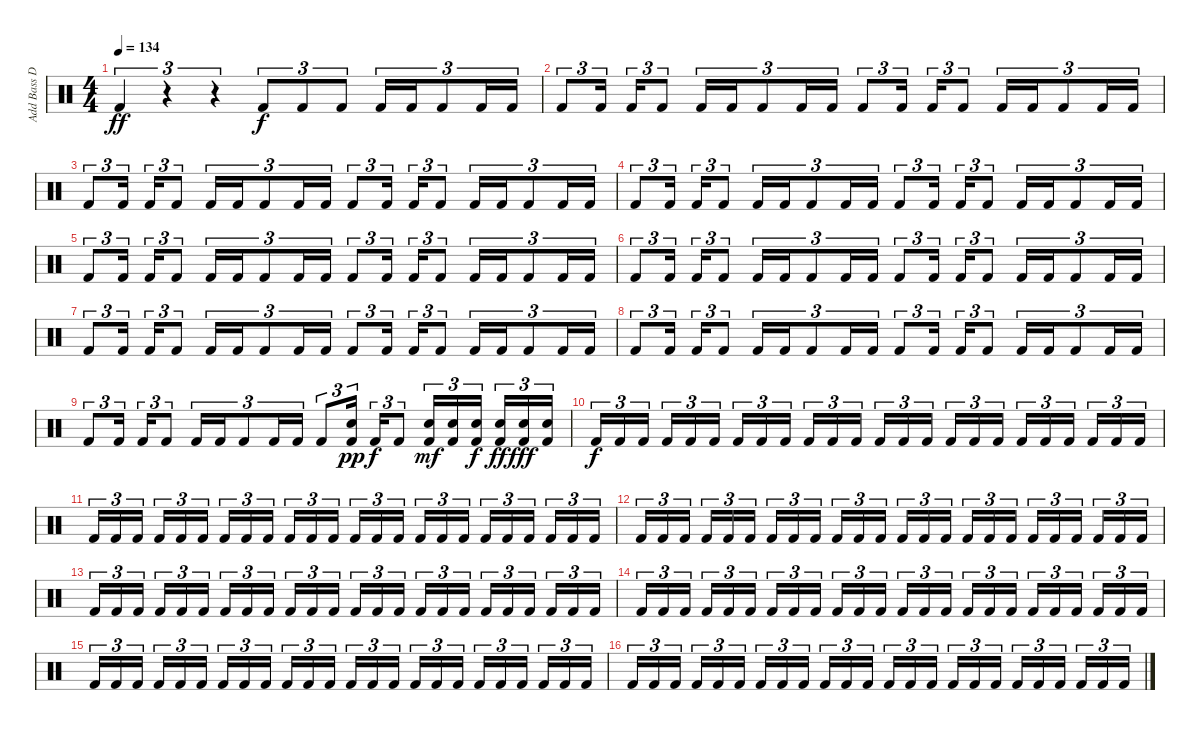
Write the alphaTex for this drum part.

\track ("Add Bass Drum" "Add Bass D") {instrument percussion}
\staff {score}
\articulation defaults
\ts (4 4)
\tempo 134
\clef neutral
\ks c "Kick (hit) 2".4{tu (3 2) dy ff}
r.4{tu (3 2)} r.4{tu (3 2)} "Kick (hit) 2".8{tu (3 2) dy f} "Kick (hit) 2".8{tu (3 2)} "Kick (hit) 2".8{tu (3 2)} "Kick (hit) 2".16{tu (3 2)} "Kick (hit) 2".16{tu (3 2)} "Kick (hit) 2".8{tu (3 2)} "Kick (hit) 2".16{tu (3 2)} "Kick (hit) 2".16{tu (3 2)} |
"Kick (hit) 2".8{tu (3 2)} "Kick (hit) 2".16{tu (3 2)} "Kick (hit) 2".16{tu (3 2)} "Kick (hit) 2".8{tu (3 2)} "Kick (hit) 2".16{tu (3 2)} "Kick (hit) 2".16{tu (3 2)} "Kick (hit) 2".8{tu (3 2)} "Kick (hit) 2".16{tu (3 2)} "Kick (hit) 2".16{tu (3 2)} "Kick (hit) 2".8{tu (3 2)} "Kick (hit) 2".16{tu (3 2)} "Kick (hit) 2".16{tu (3 2)} "Kick (hit) 2".8{tu (3 2)} "Kick (hit) 2".16{tu (3 2)} "Kick (hit) 2".16{tu (3 2)} "Kick (hit) 2".8{tu (3 2)} "Kick (hit) 2".16{tu (3 2)} "Kick (hit) 2".16{tu (3 2)} |
"Kick (hit) 2".8{tu (3 2)} "Kick (hit) 2".16{tu (3 2)} "Kick (hit) 2".16{tu (3 2)} "Kick (hit) 2".8{tu (3 2)} "Kick (hit) 2".16{tu (3 2)} "Kick (hit) 2".16{tu (3 2)} "Kick (hit) 2".8{tu (3 2)} "Kick (hit) 2".16{tu (3 2)} "Kick (hit) 2".16{tu (3 2)} "Kick (hit) 2".8{tu (3 2)} "Kick (hit) 2".16{tu (3 2)} "Kick (hit) 2".16{tu (3 2)} "Kick (hit) 2".8{tu (3 2)} "Kick (hit) 2".16{tu (3 2)} "Kick (hit) 2".16{tu (3 2)} "Kick (hit) 2".8{tu (3 2)} "Kick (hit) 2".16{tu (3 2)} "Kick (hit) 2".16{tu (3 2)} |
"Kick (hit) 2".8{tu (3 2)} "Kick (hit) 2".16{tu (3 2)} "Kick (hit) 2".16{tu (3 2)} "Kick (hit) 2".8{tu (3 2)} "Kick (hit) 2".16{tu (3 2)} "Kick (hit) 2".16{tu (3 2)} "Kick (hit) 2".8{tu (3 2)} "Kick (hit) 2".16{tu (3 2)} "Kick (hit) 2".16{tu (3 2)} "Kick (hit) 2".8{tu (3 2)} "Kick (hit) 2".16{tu (3 2)} "Kick (hit) 2".16{tu (3 2)} "Kick (hit) 2".8{tu (3 2)} "Kick (hit) 2".16{tu (3 2)} "Kick (hit) 2".16{tu (3 2)} "Kick (hit) 2".8{tu (3 2)} "Kick (hit) 2".16{tu (3 2)} "Kick (hit) 2".16{tu (3 2)} |
"Kick (hit) 2".8{tu (3 2)} "Kick (hit) 2".16{tu (3 2)} "Kick (hit) 2".16{tu (3 2)} "Kick (hit) 2".8{tu (3 2)} "Kick (hit) 2".16{tu (3 2)} "Kick (hit) 2".16{tu (3 2)} "Kick (hit) 2".8{tu (3 2)} "Kick (hit) 2".16{tu (3 2)} "Kick (hit) 2".16{tu (3 2)} "Kick (hit) 2".8{tu (3 2)} "Kick (hit) 2".16{tu (3 2)} "Kick (hit) 2".16{tu (3 2)} "Kick (hit) 2".8{tu (3 2)} "Kick (hit) 2".16{tu (3 2)} "Kick (hit) 2".16{tu (3 2)} "Kick (hit) 2".8{tu (3 2)} "Kick (hit) 2".16{tu (3 2)} "Kick (hit) 2".16{tu (3 2)} |
"Kick (hit) 2".8{tu (3 2)} "Kick (hit) 2".16{tu (3 2)} "Kick (hit) 2".16{tu (3 2)} "Kick (hit) 2".8{tu (3 2)} "Kick (hit) 2".16{tu (3 2)} "Kick (hit) 2".16{tu (3 2)} "Kick (hit) 2".8{tu (3 2)} "Kick (hit) 2".16{tu (3 2)} "Kick (hit) 2".16{tu (3 2)} "Kick (hit) 2".8{tu (3 2)} "Kick (hit) 2".16{tu (3 2)} "Kick (hit) 2".16{tu (3 2)} "Kick (hit) 2".8{tu (3 2)} "Kick (hit) 2".16{tu (3 2)} "Kick (hit) 2".16{tu (3 2)} "Kick (hit) 2".8{tu (3 2)} "Kick (hit) 2".16{tu (3 2)} "Kick (hit) 2".16{tu (3 2)} |
"Kick (hit) 2".8{tu (3 2)} "Kick (hit) 2".16{tu (3 2)} "Kick (hit) 2".16{tu (3 2)} "Kick (hit) 2".8{tu (3 2)} "Kick (hit) 2".16{tu (3 2)} "Kick (hit) 2".16{tu (3 2)} "Kick (hit) 2".8{tu (3 2)} "Kick (hit) 2".16{tu (3 2)} "Kick (hit) 2".16{tu (3 2)} "Kick (hit) 2".8{tu (3 2)} "Kick (hit) 2".16{tu (3 2)} "Kick (hit) 2".16{tu (3 2)} "Kick (hit) 2".8{tu (3 2)} "Kick (hit) 2".16{tu (3 2)} "Kick (hit) 2".16{tu (3 2)} "Kick (hit) 2".8{tu (3 2)} "Kick (hit) 2".16{tu (3 2)} "Kick (hit) 2".16{tu (3 2)} |
"Kick (hit) 2".8{tu (3 2)} "Kick (hit) 2".16{tu (3 2)} "Kick (hit) 2".16{tu (3 2)} "Kick (hit) 2".8{tu (3 2)} "Kick (hit) 2".16{tu (3 2)} "Kick (hit) 2".16{tu (3 2)} "Kick (hit) 2".8{tu (3 2)} "Kick (hit) 2".16{tu (3 2)} "Kick (hit) 2".16{tu (3 2)} "Kick (hit) 2".8{tu (3 2)} "Kick (hit) 2".16{tu (3 2)} "Kick (hit) 2".16{tu (3 2)} "Kick (hit) 2".8{tu (3 2)} "Kick (hit) 2".16{tu (3 2)} "Kick (hit) 2".16{tu (3 2)} "Kick (hit) 2".8{tu (3 2)} "Kick (hit) 2".16{tu (3 2)} "Kick (hit) 2".16{tu (3 2)} |
"Kick (hit) 2".8{tu (3 2)} "Kick (hit) 2".16{tu (3 2)} "Kick (hit) 2".16{tu (3 2)} "Kick (hit) 2".8{tu (3 2)} "Kick (hit) 2".16{tu (3 2)} "Kick (hit) 2".16{tu (3 2)} "Kick (hit) 2".8{tu (3 2)} "Kick (hit) 2".16{tu (3 2)} "Kick (hit) 2".16{tu (3 2)} "Kick (hit) 2".8{tu (3 2)} ("Electric Snare (hit)" "Kick (hit) 2").16{tu (3 2) dy pp} "Kick (hit) 2".16{tu (3 2) dy f} "Kick (hit) 2".8{tu (3 2)} ("Electric Snare (hit)" "Kick (hit) 2").16{tu (3 2) dy mf} ("Electric Snare (hit)" "Kick (hit) 2").16{tu (3 2)} ("Electric Snare (hit)" "Kick (hit) 2").16{tu (3 2) dy f} ("Electric Snare (hit)" "Kick (hit) 2").16{tu (3 2) dy ff} ("Electric Snare (hit)" "Kick (hit) 2").16{tu (3 2) dy fff} ("Electric Snare (hit)" "Kick (hit) 2").16{tu (3 2)} |
"Kick (hit) 2".16{tu (3 2) dy f} "Kick (hit) 2".16{tu (3 2)} "Kick (hit) 2".16{tu (3 2)} "Kick (hit) 2".16{tu (3 2)} "Kick (hit) 2".16{tu (3 2)} "Kick (hit) 2".16{tu (3 2)} "Kick (hit) 2".16{tu (3 2)} "Kick (hit) 2".16{tu (3 2)} "Kick (hit) 2".16{tu (3 2)} "Kick (hit) 2".16{tu (3 2)} "Kick (hit) 2".16{tu (3 2)} "Kick (hit) 2".16{tu (3 2)} "Kick (hit) 2".16{tu (3 2)} "Kick (hit) 2".16{tu (3 2)} "Kick (hit) 2".16{tu (3 2)} "Kick (hit) 2".16{tu (3 2)} "Kick (hit) 2".16{tu (3 2)} "Kick (hit) 2".16{tu (3 2)} "Kick (hit) 2".16{tu (3 2)} "Kick (hit) 2".16{tu (3 2)} "Kick (hit) 2".16{tu (3 2)} "Kick (hit) 2".16{tu (3 2)} "Kick (hit) 2".16{tu (3 2)} "Kick (hit) 2".16{tu (3 2)} |
"Kick (hit) 2".16{tu (3 2)} "Kick (hit) 2".16{tu (3 2)} "Kick (hit) 2".16{tu (3 2)} "Kick (hit) 2".16{tu (3 2)} "Kick (hit) 2".16{tu (3 2)} "Kick (hit) 2".16{tu (3 2)} "Kick (hit) 2".16{tu (3 2)} "Kick (hit) 2".16{tu (3 2)} "Kick (hit) 2".16{tu (3 2)} "Kick (hit) 2".16{tu (3 2)} "Kick (hit) 2".16{tu (3 2)} "Kick (hit) 2".16{tu (3 2)} "Kick (hit) 2".16{tu (3 2)} "Kick (hit) 2".16{tu (3 2)} "Kick (hit) 2".16{tu (3 2)} "Kick (hit) 2".16{tu (3 2)} "Kick (hit) 2".16{tu (3 2)} "Kick (hit) 2".16{tu (3 2)} "Kick (hit) 2".16{tu (3 2)} "Kick (hit) 2".16{tu (3 2)} "Kick (hit) 2".16{tu (3 2)} "Kick (hit) 2".16{tu (3 2)} "Kick (hit) 2".16{tu (3 2)} "Kick (hit) 2".16{tu (3 2)} |
"Kick (hit) 2".16{tu (3 2)} "Kick (hit) 2".16{tu (3 2)} "Kick (hit) 2".16{tu (3 2)} "Kick (hit) 2".16{tu (3 2)} "Kick (hit) 2".16{tu (3 2)} "Kick (hit) 2".16{tu (3 2)} "Kick (hit) 2".16{tu (3 2)} "Kick (hit) 2".16{tu (3 2)} "Kick (hit) 2".16{tu (3 2)} "Kick (hit) 2".16{tu (3 2)} "Kick (hit) 2".16{tu (3 2)} "Kick (hit) 2".16{tu (3 2)} "Kick (hit) 2".16{tu (3 2)} "Kick (hit) 2".16{tu (3 2)} "Kick (hit) 2".16{tu (3 2)} "Kick (hit) 2".16{tu (3 2)} "Kick (hit) 2".16{tu (3 2)} "Kick (hit) 2".16{tu (3 2)} "Kick (hit) 2".16{tu (3 2)} "Kick (hit) 2".16{tu (3 2)} "Kick (hit) 2".16{tu (3 2)} "Kick (hit) 2".16{tu (3 2)} "Kick (hit) 2".16{tu (3 2)} "Kick (hit) 2".16{tu (3 2)} |
"Kick (hit) 2".16{tu (3 2)} "Kick (hit) 2".16{tu (3 2)} "Kick (hit) 2".16{tu (3 2)} "Kick (hit) 2".16{tu (3 2)} "Kick (hit) 2".16{tu (3 2)} "Kick (hit) 2".16{tu (3 2)} "Kick (hit) 2".16{tu (3 2)} "Kick (hit) 2".16{tu (3 2)} "Kick (hit) 2".16{tu (3 2)} "Kick (hit) 2".16{tu (3 2)} "Kick (hit) 2".16{tu (3 2)} "Kick (hit) 2".16{tu (3 2)} "Kick (hit) 2".16{tu (3 2)} "Kick (hit) 2".16{tu (3 2)} "Kick (hit) 2".16{tu (3 2)} "Kick (hit) 2".16{tu (3 2)} "Kick (hit) 2".16{tu (3 2)} "Kick (hit) 2".16{tu (3 2)} "Kick (hit) 2".16{tu (3 2)} "Kick (hit) 2".16{tu (3 2)} "Kick (hit) 2".16{tu (3 2)} "Kick (hit) 2".16{tu (3 2)} "Kick (hit) 2".16{tu (3 2)} "Kick (hit) 2".16{tu (3 2)} |
"Kick (hit) 2".16{tu (3 2)} "Kick (hit) 2".16{tu (3 2)} "Kick (hit) 2".16{tu (3 2)} "Kick (hit) 2".16{tu (3 2)} "Kick (hit) 2".16{tu (3 2)} "Kick (hit) 2".16{tu (3 2)} "Kick (hit) 2".16{tu (3 2)} "Kick (hit) 2".16{tu (3 2)} "Kick (hit) 2".16{tu (3 2)} "Kick (hit) 2".16{tu (3 2)} "Kick (hit) 2".16{tu (3 2)} "Kick (hit) 2".16{tu (3 2)} "Kick (hit) 2".16{tu (3 2)} "Kick (hit) 2".16{tu (3 2)} "Kick (hit) 2".16{tu (3 2)} "Kick (hit) 2".16{tu (3 2)} "Kick (hit) 2".16{tu (3 2)} "Kick (hit) 2".16{tu (3 2)} "Kick (hit) 2".16{tu (3 2)} "Kick (hit) 2".16{tu (3 2)} "Kick (hit) 2".16{tu (3 2)} "Kick (hit) 2".16{tu (3 2)} "Kick (hit) 2".16{tu (3 2)} "Kick (hit) 2".16{tu (3 2)} |
"Kick (hit) 2".16{tu (3 2)} "Kick (hit) 2".16{tu (3 2)} "Kick (hit) 2".16{tu (3 2)} "Kick (hit) 2".16{tu (3 2)} "Kick (hit) 2".16{tu (3 2)} "Kick (hit) 2".16{tu (3 2)} "Kick (hit) 2".16{tu (3 2)} "Kick (hit) 2".16{tu (3 2)} "Kick (hit) 2".16{tu (3 2)} "Kick (hit) 2".16{tu (3 2)} "Kick (hit) 2".16{tu (3 2)} "Kick (hit) 2".16{tu (3 2)} "Kick (hit) 2".16{tu (3 2)} "Kick (hit) 2".16{tu (3 2)} "Kick (hit) 2".16{tu (3 2)} "Kick (hit) 2".16{tu (3 2)} "Kick (hit) 2".16{tu (3 2)} "Kick (hit) 2".16{tu (3 2)} "Kick (hit) 2".16{tu (3 2)} "Kick (hit) 2".16{tu (3 2)} "Kick (hit) 2".16{tu (3 2)} "Kick (hit) 2".16{tu (3 2)} "Kick (hit) 2".16{tu (3 2)} "Kick (hit) 2".16{tu (3 2)} |
"Kick (hit) 2".16{tu (3 2)} "Kick (hit) 2".16{tu (3 2)} "Kick (hit) 2".16{tu (3 2)} "Kick (hit) 2".16{tu (3 2)} "Kick (hit) 2".16{tu (3 2)} "Kick (hit) 2".16{tu (3 2)} "Kick (hit) 2".16{tu (3 2)} "Kick (hit) 2".16{tu (3 2)} "Kick (hit) 2".16{tu (3 2)} "Kick (hit) 2".16{tu (3 2)} "Kick (hit) 2".16{tu (3 2)} "Kick (hit) 2".16{tu (3 2)} "Kick (hit) 2".16{tu (3 2)} "Kick (hit) 2".16{tu (3 2)} "Kick (hit) 2".16{tu (3 2)} "Kick (hit) 2".16{tu (3 2)} "Kick (hit) 2".16{tu (3 2)} "Kick (hit) 2".16{tu (3 2)} "Kick (hit) 2".16{tu (3 2)} "Kick (hit) 2".16{tu (3 2)} "Kick (hit) 2".16{tu (3 2)} "Kick (hit) 2".16{tu (3 2)} "Kick (hit) 2".16{tu (3 2)} "Kick (hit) 2".16{tu (3 2)}
